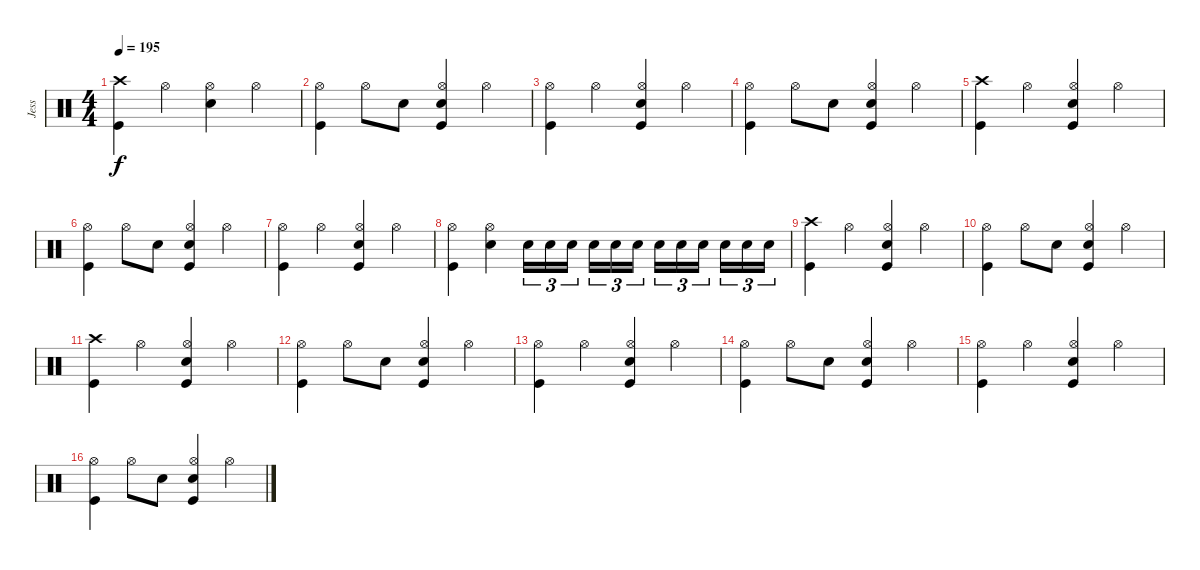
\track ("Jess" "Jess") {instrument percussion}
\staff {score}
\articulation defaults
\ts (4 4)
\tempo 195
\clef neutral
\ks c
("Crash high (hit)" "Kick (hit)").4{dy f} "Hi-Hat (open)".4 ("Hi-Hat (open)" "Electric Snare (hit)").4 "Hi-Hat (open)".4 |
("Hi-Hat (open)" "Kick (hit)").4 "Hi-Hat (open)".8 "Electric Snare (hit)".8 ("Hi-Hat (open)" "Electric Snare (hit)" "Kick (hit)").4 "Hi-Hat (open)".4 |
("Hi-Hat (open)" "Kick (hit)").4 "Hi-Hat (open)".4 ("Hi-Hat (open)" "Electric Snare (hit)" "Kick (hit)").4 "Hi-Hat (open)".4 |
("Hi-Hat (open)" "Kick (hit)").4 "Hi-Hat (open)".8 "Electric Snare (hit)".8 ("Hi-Hat (open)" "Electric Snare (hit)" "Kick (hit)").4 "Hi-Hat (open)".4 |
("Crash high (hit)" "Kick (hit)").4 "Hi-Hat (open)".4 ("Hi-Hat (open)" "Electric Snare (hit)" "Kick (hit)").4 "Hi-Hat (open)".4 |
("Hi-Hat (open)" "Kick (hit)").4 "Hi-Hat (open)".8 "Electric Snare (hit)".8 ("Hi-Hat (open)" "Electric Snare (hit)" "Kick (hit)").4 "Hi-Hat (open)".4 |
("Hi-Hat (open)" "Kick (hit)").4 "Hi-Hat (open)".4 ("Hi-Hat (open)" "Electric Snare (hit)" "Kick (hit)").4 "Hi-Hat (open)".4 |
("Hi-Hat (open)" "Kick (hit)").4 ("Hi-Hat (open)" "Electric Snare (hit)").4 "Electric Snare (hit)".16{tu (3 2)} "Electric Snare (hit)".16{tu (3 2)} "Electric Snare (hit)".16{tu (3 2)} "Electric Snare (hit)".16{tu (3 2)} "Electric Snare (hit)".16{tu (3 2)} "Electric Snare (hit)".16{tu (3 2)} "Electric Snare (hit)".16{tu (3 2)} "Electric Snare (hit)".16{tu (3 2)} "Electric Snare (hit)".16{tu (3 2)} "Electric Snare (hit)".16{tu (3 2)} "Electric Snare (hit)".16{tu (3 2)} "Electric Snare (hit)".16{tu (3 2)} |
("Crash high (hit)" "Kick (hit)").4 "Hi-Hat (open)".4 ("Hi-Hat (open)" "Electric Snare (hit)" "Kick (hit)").4 "Hi-Hat (open)".4 |
("Hi-Hat (open)" "Kick (hit)").4 "Hi-Hat (open)".8 "Electric Snare (hit)".8 ("Hi-Hat (open)" "Electric Snare (hit)" "Kick (hit)").4 "Hi-Hat (open)".4 |
("Crash high (hit)" "Kick (hit)").4 "Hi-Hat (open)".4 ("Hi-Hat (open)" "Electric Snare (hit)" "Kick (hit)").4 "Hi-Hat (open)".4 |
("Hi-Hat (open)" "Kick (hit)").4 "Hi-Hat (open)".8 "Electric Snare (hit)".8 ("Hi-Hat (open)" "Electric Snare (hit)" "Kick (hit)").4 "Hi-Hat (open)".4 |
("Hi-Hat (open)" "Kick (hit)").4 "Hi-Hat (open)".4 ("Hi-Hat (open)" "Electric Snare (hit)" "Kick (hit)").4 "Hi-Hat (open)".4 |
("Hi-Hat (open)" "Kick (hit)").4 "Hi-Hat (open)".8 "Electric Snare (hit)".8 ("Hi-Hat (open)" "Electric Snare (hit)" "Kick (hit)").4 "Hi-Hat (open)".4 |
("Hi-Hat (open)" "Kick (hit)").4 "Hi-Hat (open)".4 ("Hi-Hat (open)" "Electric Snare (hit)" "Kick (hit)").4 "Hi-Hat (open)".4 |
("Hi-Hat (open)" "Kick (hit)").4 "Hi-Hat (open)".8 "Electric Snare (hit)".8 ("Hi-Hat (open)" "Electric Snare (hit)" "Kick (hit)").4 "Hi-Hat (open)".4
